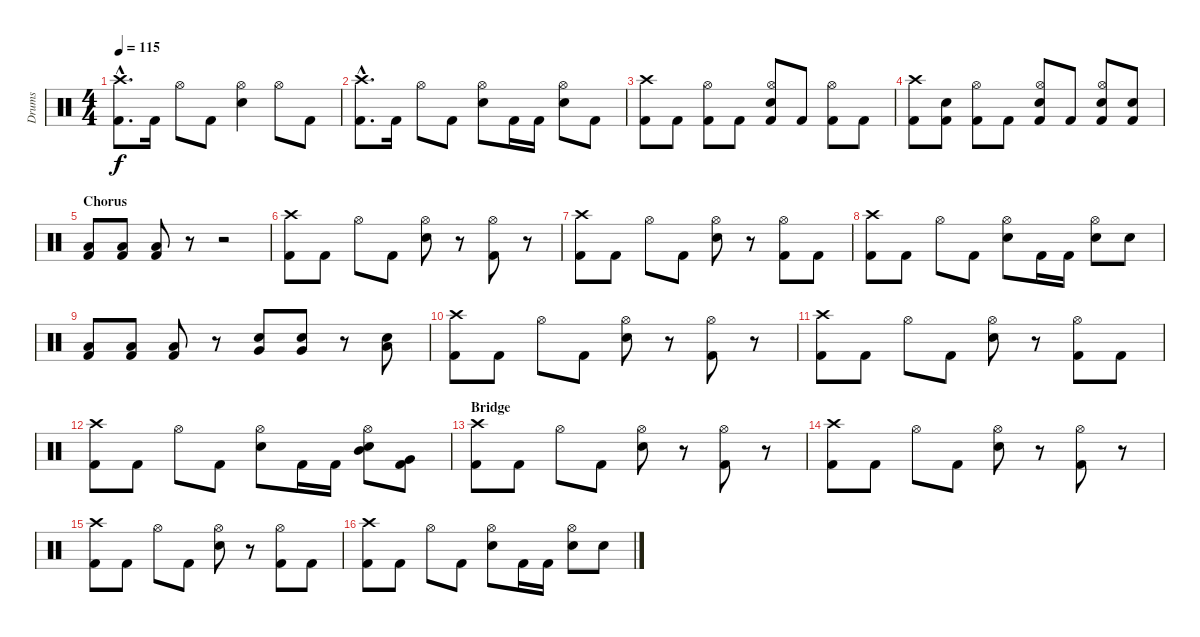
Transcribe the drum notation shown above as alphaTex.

\track ("Drums" "Drums") {instrument percussion}
\staff {score}
\articulation defaults
\ts (4 4)
\tempo 115
\clef neutral
\ks c
("Crash high (hit)"{hac} "Kick (hit) 2"{hac}).8{d dy f} "Kick (hit) 2".16 "Hi-Hat (open)".8 "Kick (hit) 2".8 ("Hi-Hat (open)" "Snare (hit) 2").4 "Hi-Hat (open)".8 "Kick (hit) 2".8 |
("Crash high (hit)"{hac} "Kick (hit) 2"{hac}).8{d} "Kick (hit) 2".16 "Hi-Hat (open)".8 "Kick (hit) 2".8 ("Hi-Hat (open)" "Snare (hit) 2").8 "Kick (hit) 2".16 "Kick (hit) 2".16 ("Hi-Hat (open)" "Snare (hit) 2").8 "Kick (hit) 2".8 |
("Crash high (hit)" "Kick (hit) 2").8 "Kick (hit) 2".8 ("Hi-Hat (open)" "Kick (hit) 2").8 "Kick (hit) 2".8 ("Hi-Hat (open)" "Snare (hit) 2" "Kick (hit) 2").8 "Kick (hit) 2".8 ("Hi-Hat (open)" "Kick (hit) 2").8 "Kick (hit) 2".8 |
("Crash high (hit)" "Kick (hit) 2").8 ("Snare (hit) 2" "Kick (hit) 2").8 ("Hi-Hat (open)" "Kick (hit) 2").8 "Kick (hit) 2".8 ("Hi-Hat (open)" "Snare (hit) 2" "Kick (hit) 2").8 "Kick (hit) 2".8 ("Hi-Hat (open)" "Snare (hit) 2" "Kick (hit) 2").8 ("Snare (hit) 2" "Kick (hit) 2").8 |
\section ("" "Chorus")
("Low Floor Tom (hit)" "Kick (hit) 2").8 ("Low Floor Tom (hit)" "Kick (hit) 2").8 ("Low Floor Tom (hit)" "Kick (hit) 2").8 r.8 r.2 |
("Crash high (hit)" "Kick (hit) 2").8 "Kick (hit) 2".8 "Hi-Hat (open)".8 "Kick (hit) 2".8 ("Hi-Hat (open)" "Snare (hit) 2").8 r.8 ("Hi-Hat (open)" "Kick (hit) 2").8 r.8 |
("Crash high (hit)" "Kick (hit) 2").8 "Kick (hit) 2".8 "Hi-Hat (open)".8 "Kick (hit) 2".8 ("Hi-Hat (open)" "Snare (hit) 2").8 r.8 ("Hi-Hat (open)" "Kick (hit) 2").8 "Kick (hit) 2".8 |
("Crash high (hit)" "Kick (hit) 2").8 "Kick (hit) 2".8 "Hi-Hat (open)".8 "Kick (hit) 2".8 ("Hi-Hat (open)" "Snare (hit) 2").8 "Kick (hit) 2".16 "Kick (hit) 2".16 ("Hi-Hat (open)" "Snare (hit) 2").8 "Snare (hit) 2".8 |
("Low Floor Tom (hit)" "Kick (hit) 2").8 ("Low Floor Tom (hit)" "Kick (hit) 2").8 ("Low Floor Tom (hit)" "Kick (hit) 2").8 r.8 ("Very Low Tom (hit)" "Snare (hit) 2").8 ("Very Low Tom (hit)" "Snare (hit) 2").8 r.8 ("Low Floor Tom (hit)" "Snare (hit) 2").8 |
("Crash high (hit)" "Kick (hit) 2").8 "Kick (hit) 2".8 "Hi-Hat (open)".8 "Kick (hit) 2".8 ("Hi-Hat (open)" "Snare (hit) 2").8 r.8 ("Hi-Hat (open)" "Kick (hit) 2").8 r.8 |
("Crash high (hit)" "Kick (hit) 2").8 "Kick (hit) 2".8 "Hi-Hat (open)".8 "Kick (hit) 2".8 ("Hi-Hat (open)" "Snare (hit) 2").8 r.8 ("Hi-Hat (open)" "Kick (hit) 2").8 "Kick (hit) 2".8 |
("Crash high (hit)" "Kick (hit) 2").8 "Kick (hit) 2".8 "Hi-Hat (open)".8 "Kick (hit) 2".8 ("Hi-Hat (open)" "Snare (hit) 2").8 "Kick (hit) 2".16 "Kick (hit) 2".16 ("Hi-Hat (open)" "Mid Tom (hit)" "Snare (hit) 2").8 ("Very Low Tom (hit)" "Kick (hit) 2").8 |
\section ("" "Bridge")
("Crash high (hit)" "Kick (hit) 2").8 "Kick (hit) 2".8 "Hi-Hat (open)".8 "Kick (hit) 2".8 ("Hi-Hat (open)" "Snare (hit) 2").8 r.8 ("Hi-Hat (open)" "Kick (hit) 2").8 r.8 |
("Crash high (hit)" "Kick (hit) 2").8 "Kick (hit) 2".8 "Hi-Hat (open)".8 "Kick (hit) 2".8 ("Hi-Hat (open)" "Snare (hit) 2").8 r.8 ("Hi-Hat (open)" "Kick (hit) 2").8 r.8 |
("Crash high (hit)" "Kick (hit) 2").8 "Kick (hit) 2".8 "Hi-Hat (open)".8 "Kick (hit) 2".8 ("Hi-Hat (open)" "Snare (hit) 2").8 r.8 ("Hi-Hat (open)" "Kick (hit) 2").8 "Kick (hit) 2".8 |
("Crash high (hit)" "Kick (hit) 2").8 "Kick (hit) 2".8 "Hi-Hat (open)".8 "Kick (hit) 2".8 ("Hi-Hat (open)" "Snare (hit) 2").8 "Kick (hit) 2".16 "Kick (hit) 2".16 ("Hi-Hat (open)" "Snare (hit) 2").8 "Snare (hit) 2".8
